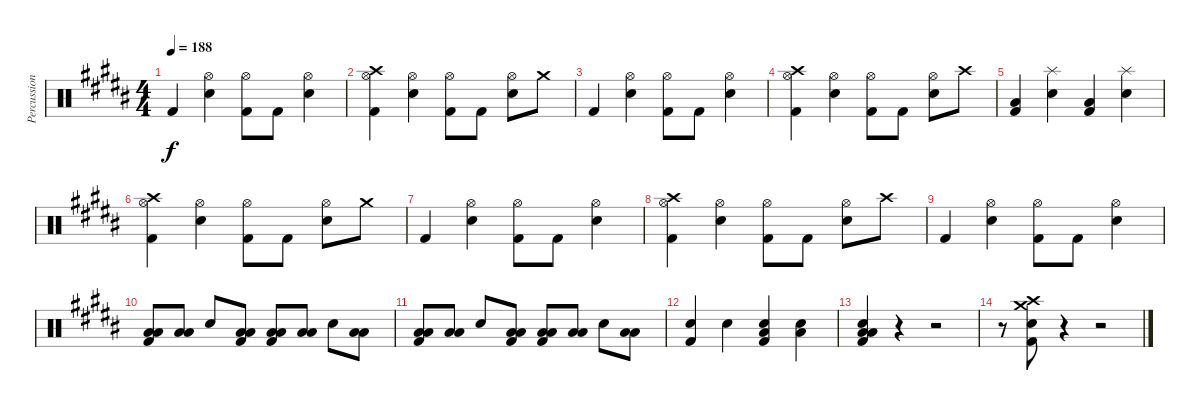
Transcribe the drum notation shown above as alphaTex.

\track ("Percussion" "Percussion") {instrument percussion}
\staff {score}
\articulation defaults
\ts (4 4)
\tempo 188
\clef neutral
\ks b "Kick (hit) 2".4{dy f}
("Hi-Hat (open)" "Electric Snare (hit)").4 ("Hi-Hat (open)" "Kick (hit) 2").8 "Kick (hit) 2".8 ("Hi-Hat (open)" "Electric Snare (hit)").4 |
("Crash high (hit)" "Hi-Hat (open)" "Kick (hit) 2").4 ("Hi-Hat (open)" "Electric Snare (hit)").4 ("Hi-Hat (open)" "Kick (hit) 2").8 "Kick (hit) 2".8 ("Hi-Hat (open)" "Electric Snare (hit)").8 "Crash medium (hit)".8 |
"Kick (hit) 2".4 ("Hi-Hat (open)" "Electric Snare (hit)").4 ("Hi-Hat (open)" "Kick (hit) 2").8 "Kick (hit) 2".8 ("Hi-Hat (open)" "Electric Snare (hit)").4 |
("Crash high (hit)" "Hi-Hat (open)" "Kick (hit) 2").4 ("Hi-Hat (open)" "Electric Snare (hit)").4 ("Hi-Hat (open)" "Kick (hit) 2").8 "Kick (hit) 2".8 ("Hi-Hat (open)" "Electric Snare (hit)").8 "Crash high (hit)".8 |
("Low Floor Tom (hit)" "Kick (hit) 2").4 ("Splash (hit)" "Electric Snare (hit)").4 ("Low Floor Tom (hit)" "Kick (hit) 2").4 ("Splash (hit)" "Electric Snare (hit)").4 |
("Crash high (hit)" "Hi-Hat (open)" "Kick (hit) 2").4 ("Hi-Hat (open)" "Electric Snare (hit)").4 ("Hi-Hat (open)" "Kick (hit) 2").8 "Kick (hit) 2".8 ("Hi-Hat (open)" "Electric Snare (hit)").8 "Crash medium (hit)".8 |
"Kick (hit) 2".4 ("Hi-Hat (open)" "Electric Snare (hit)").4 ("Hi-Hat (open)" "Kick (hit) 2").8 "Kick (hit) 2".8 ("Hi-Hat (open)" "Electric Snare (hit)").4 |
("Crash high (hit)" "Hi-Hat (open)" "Kick (hit) 2").4 ("Hi-Hat (open)" "Electric Snare (hit)").4 ("Hi-Hat (open)" "Kick (hit) 2").8 "Kick (hit) 2".8 ("Hi-Hat (open)" "Electric Snare (hit)").8 "Crash high (hit)".8 |
"Kick (hit) 2".4 ("Hi-Hat (open)" "Electric Snare (hit)").4 ("Hi-Hat (open)" "Kick (hit) 2").8 "Kick (hit) 2".8 ("Hi-Hat (open)" "Electric Snare (hit)").4 |
("Low Tom (hit)" "Low Floor Tom (hit)" "Kick (hit) 2").8 ("Low Tom (hit)" "Low Floor Tom (hit)").8 "Electric Snare (hit)".8 ("Low Tom (hit)" "Low Floor Tom (hit)" "Kick (hit) 2").8 ("Low Tom (hit)" "Low Floor Tom (hit)" "Kick (hit) 2").8 ("Low Tom (hit)" "Low Floor Tom (hit)").8 "Electric Snare (hit)".8 ("Low Tom (hit)" "Low Floor Tom (hit)").8 |
("Low Tom (hit)" "Low Floor Tom (hit)" "Kick (hit) 2").8 ("Low Tom (hit)" "Low Floor Tom (hit)").8 "Electric Snare (hit)".8 ("Low Tom (hit)" "Low Floor Tom (hit)" "Kick (hit) 2").8 ("Low Tom (hit)" "Low Floor Tom (hit)" "Kick (hit) 2").8 ("Low Tom (hit)" "Low Floor Tom (hit)").8 "Electric Snare (hit)".8 ("Low Tom (hit)" "Low Floor Tom (hit)").8 |
("Electric Snare (hit)" "Kick (hit) 2").4 "Electric Snare (hit)".4 ("Low Floor Tom (hit)" "Electric Snare (hit)" "Kick (hit) 2").4 ("Low Floor Tom (hit)" "Electric Snare (hit)").4 |
("Low Tom (hit)" "Low Floor Tom (hit)" "Electric Snare (hit)" "Kick (hit) 2").4 r.4 r.2 |
r.8 ("Crash high (hit)" "Crash medium (hit)" "Electric Snare (hit)" "Kick (hit) 2").8 r.4 r.2
